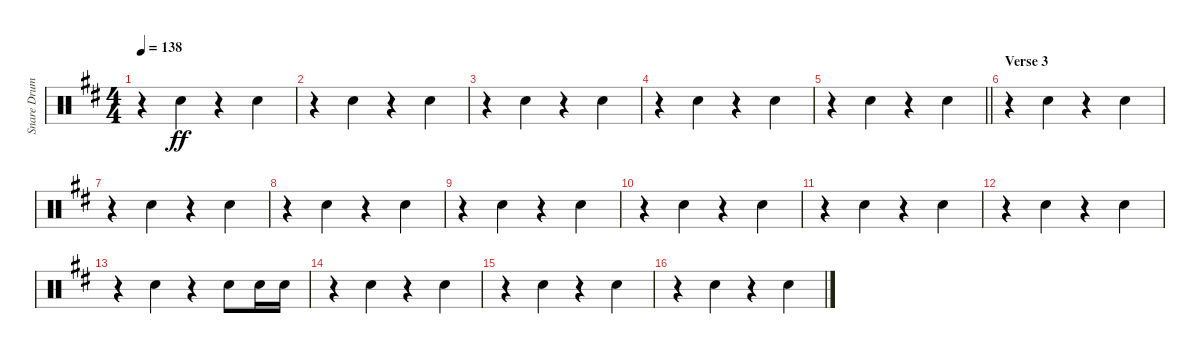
\track ("Snare Drum" "Snare Drum") {instrument percussion}
\staff {score}
\articulation defaults
\ts (4 4)
\tempo 138
\clef neutral
\ks d
r.4{dy ff} "Electric Snare (hit)".4 r.4 "Electric Snare (hit)".4 |
r.4 "Electric Snare (hit)".4 r.4 "Electric Snare (hit)".4 |
r.4 "Electric Snare (hit)".4 r.4 "Electric Snare (hit)".4 |
r.4 "Electric Snare (hit)".4 r.4 "Electric Snare (hit)".4 |
\barLineRight lightlight
r.4 "Electric Snare (hit)".4 r.4 "Electric Snare (hit)".4 |
\section ("" "Verse 3")
r.4 "Electric Snare (hit)".4 r.4 "Electric Snare (hit)".4 |
r.4 "Electric Snare (hit)".4 r.4 "Electric Snare (hit)".4 |
r.4 "Electric Snare (hit)".4 r.4 "Electric Snare (hit)".4 |
r.4 "Electric Snare (hit)".4 r.4 "Electric Snare (hit)".4 |
r.4 "Electric Snare (hit)".4 r.4 "Electric Snare (hit)".4 |
r.4 "Electric Snare (hit)".4 r.4 "Electric Snare (hit)".4 |
r.4 "Electric Snare (hit)".4 r.4 "Electric Snare (hit)".4 |
r.4 "Electric Snare (hit)".4 r.4 "Electric Snare (hit)".8 "Electric Snare (hit)".16 "Electric Snare (hit)".16 |
r.4 "Electric Snare (hit)".4 r.4 "Electric Snare (hit)".4 |
r.4 "Electric Snare (hit)".4 r.4 "Electric Snare (hit)".4 |
r.4 "Electric Snare (hit)".4 r.4 "Electric Snare (hit)".4
